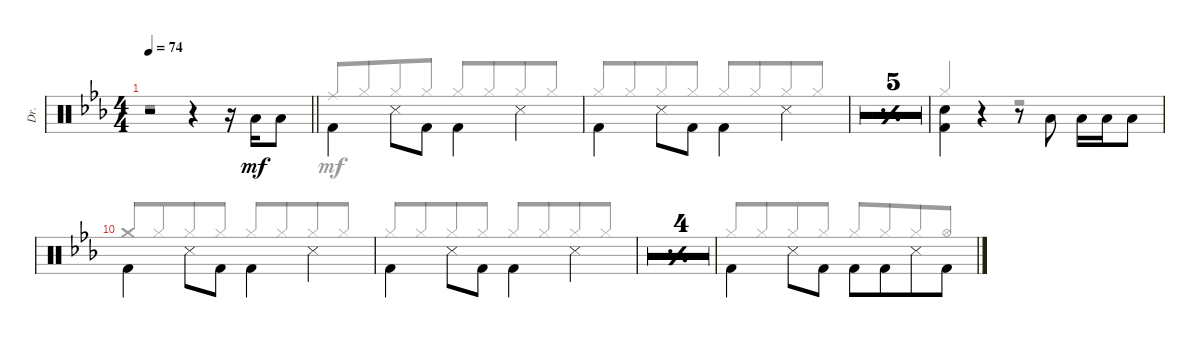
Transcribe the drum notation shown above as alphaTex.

\bracketExtendMode groupsimilarinstruments
\otherSystemsTrackNameOrientation horizontal
\defaultBarNumberDisplay FirstOfSystem
\track ("Drums" "Dr.") {multiBarRest instrument percussion}
\staff {score}
\articulation defaults
\voice
\ts (4 4)
\beaming (8 2 2 2 2)
\tempo 74
\clef neutral
\barLineRight lightlight
\ks eb
r.2{dy mf beam Down} r.4{beam Down} r.16{beam Down} "Low Tom (hit)"{acc forcenatural}.16{beam Down} "Low Tom (hit)"{acc forcenatural}.8{beam Down} |
"Kick (hit) 2"{acc forcenatural}.4{beam Down} "Snare (side stick) 3"{acc forcenatural}.8{beam Down} "Kick (hit) 2"{acc forcenatural}.8{beam Down} "Kick (hit) 2"{acc forcenatural}.4{beam Down} "Snare (side stick) 3"{acc forcenatural}.4{beam Down} |
"Kick (hit) 2"{acc forcenatural}.4{beam Down} "Snare (side stick) 3"{acc forcenatural}.8{beam Down} "Kick (hit) 2"{acc forcenatural}.8{beam Down} "Kick (hit) 2"{acc forcenatural}.4{beam Down} "Snare (side stick) 3"{acc forcenatural}.4{beam Down} |
\simile simple
|
|
|
|
|
\simile none
("Kick (hit) 2"{acc forcenatural} "Snare (hit) 2"{acc forcenatural}).4{beam Down} r.4{beam Down} r.8{beam Down} "Low Tom (hit)"{acc forcenatural}.8{beam Down} "Low Tom (hit)"{acc forcenatural}.16{beam Down} "Low Tom (hit)"{acc forcenatural}.16{beam Down} "Low Tom (hit)"{acc forcenatural}.8{beam Down} |
"Kick (hit) 2"{acc forcenatural}.4{beam Down} "Snare (side stick) 3"{acc forcenatural}.8{beam Down} "Kick (hit) 2"{acc forcenatural}.8{beam Down} "Kick (hit) 2"{acc forcenatural}.4{beam Down} "Snare (side stick) 3"{acc forcenatural}.4{beam Down} |
"Kick (hit) 2"{acc forcenatural}.4{beam Down} "Snare (side stick) 3"{acc forcenatural}.8{beam Down} "Kick (hit) 2"{acc forcenatural}.8{beam Down} "Kick (hit) 2"{acc forcenatural}.4{beam Down} "Snare (side stick) 3"{acc forcenatural}.4{beam Down} |
\simile simple
|
|
|
|
\simile none "Kick (hit) 2"{acc forcenatural}.4{beam Down} "Snare (side stick) 3"{acc forcenatural}.8{beam Down} "Kick (hit) 2"{acc forcenatural}.8{beam Down} "Kick (hit) 2"{acc forcenatural}.8{beam Down} "Kick (hit) 2"{acc forcenatural}.8{beam Down beam merge} "Snare (side stick) 3"{acc forcenatural}.8{beam Down} "Kick (hit) 2"{acc forcenatural}.8{beam Down}
\voice
\clef neutral
\ottava regular
\simile none
\barLineRight lightlight
\ks eb
r.1{dy mf beam Down} |
"Ride (middle)"{acc forcenatural}.8{beam Up} "Hi-Hat (closed)"{acc forcenatural}.8{beam Up beam merge} "Hi-Hat (closed)"{acc forcenatural}.8{beam Up} "Hi-Hat (closed)"{acc forcenatural}.8{beam Up} "Hi-Hat (closed)"{acc forcenatural}.8{beam Up} "Hi-Hat (closed)"{acc forcenatural}.8{beam Up beam merge} "Hi-Hat (closed)"{acc forcenatural}.8{beam Up} "Hi-Hat (closed)"{acc forcenatural}.8{beam Up} |
"Hi-Hat (closed)"{acc forcenatural}.8{beam Up} "Hi-Hat (closed)"{acc forcenatural}.8{beam Up beam merge} "Hi-Hat (closed)"{acc forcenatural}.8{beam Up} "Hi-Hat (closed)"{acc forcenatural}.8{beam Up} "Hi-Hat (closed)"{acc forcenatural}.8{beam Up} "Hi-Hat (closed)"{acc forcenatural}.8{beam Up beam merge} "Hi-Hat (closed)"{acc forcenatural}.8{beam Up beam merge} "Hi-Hat (closed)"{acc forcenatural}.8{beam Up} |
\simile simple
|
|
|
|
|
\simile none "Hi-Hat (closed)"{acc forcenatural}.4{beam Up}
r.4{beam Down} r.2{beam Down} |
"Crash medium (hit)"{acc forcenatural}.8{beam Up} "Hi-Hat (closed)"{acc forcenatural}.8{beam Up beam merge} "Hi-Hat (closed)"{acc forcenatural}.8{beam Up} "Hi-Hat (closed)"{acc forcenatural}.8{beam Up} "Hi-Hat (closed)"{acc forcenatural}.8{beam Up} "Hi-Hat (closed)"{acc forcenatural}.8{beam Up beam merge} "Hi-Hat (closed)"{acc forcenatural}.8{beam Up beam merge} "Hi-Hat (closed)"{acc forcenatural}.8{beam Up} |
"Hi-Hat (closed)"{acc forcenatural}.8{beam Up} "Hi-Hat (closed)"{acc forcenatural}.8{beam Up beam merge} "Hi-Hat (closed)"{acc forcenatural}.8{beam Up} "Hi-Hat (closed)"{acc forcenatural}.8{beam Up} "Hi-Hat (closed)"{acc forcenatural}.8{beam Up} "Hi-Hat (closed)"{acc forcenatural}.8{beam Up beam merge} "Hi-Hat (closed)"{acc forcenatural}.8{beam Up} "Hi-Hat (closed)"{acc forcenatural}.8{beam Up} |
\simile simple
|
|
|
|
\simile none "Hi-Hat (closed)"{acc forcenatural}.8{beam Up} "Hi-Hat (closed)"{acc forcenatural}.8{beam Up beam merge} "Hi-Hat (closed)"{acc forcenatural}.8{beam Up} "Hi-Hat (closed)"{acc forcenatural}.8{beam Up} "Hi-Hat (closed)"{acc forcenatural}.8{beam Up} "Hi-Hat (closed)"{acc forcenatural}.8{beam Up beam merge} "Hi-Hat (closed)"{acc forcenatural}.8{beam Up beam merge} "Hi-Hat (open)"{acc forcenatural}.8{beam Up}
